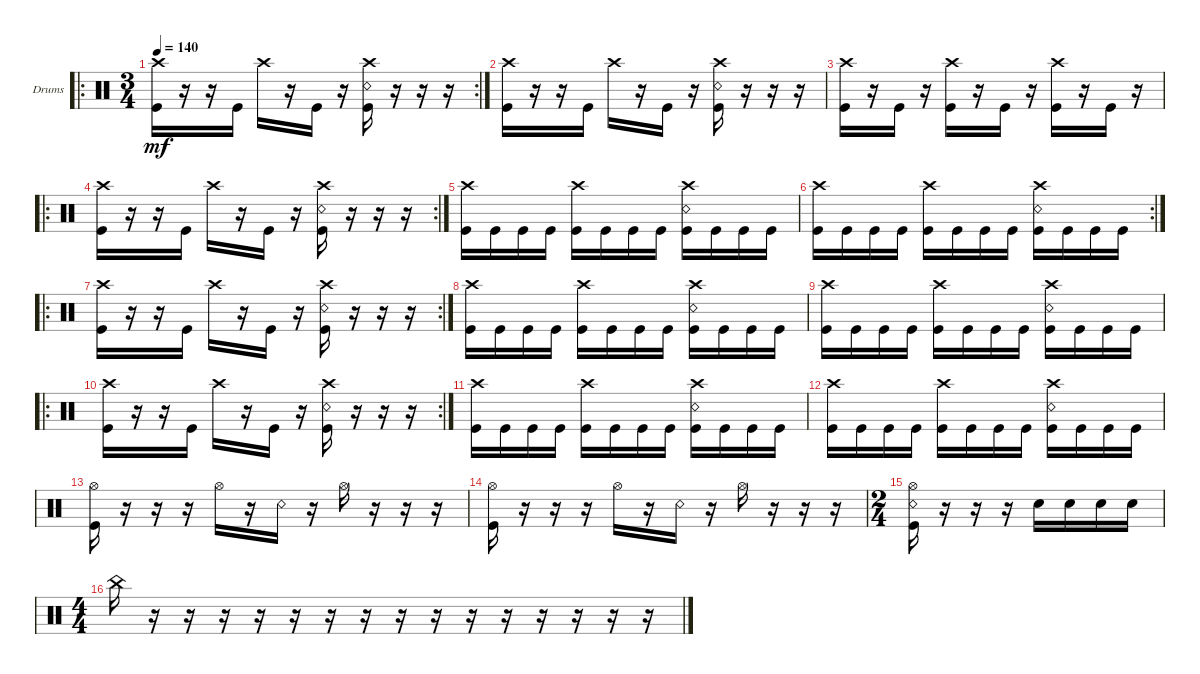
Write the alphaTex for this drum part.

\defaultSystemsLayout 4
\bracketExtendMode groupsimilarinstruments
\firstSystemTrackNameOrientation horizontal
\otherSystemsTrackNameOrientation horizontal
\track ("Drums" "Drums") {instrument percussion}
\staff {score}
\articulation defaults
\ro
\rc 2
\ts (3 4)
\tempo 140
\clef neutral
\ks c
("Crash high (hit)" "Kick (hit)").16{dy mf} r.16 r.16 "Kick (hit)".16 "Crash high (hit)".16 r.16 "Kick (hit)".16 r.16 ("Kick (hit)" "Crash high (hit)" "Snare (rim shot)").16 r.16 r.16 r.16 |
("Crash high (hit)" "Kick (hit)").16 r.16 r.16 "Kick (hit)".16 "Crash high (hit)".16 r.16 "Kick (hit)".16 r.16 ("Kick (hit)" "Crash high (hit)" "Snare (rim shot)").16 r.16 r.16 r.16 |
("Crash high (hit)" "Kick (hit)").16 r.16 "Kick (hit)".16 r.16 ("Crash high (hit)" "Kick (hit)").16 r.16 "Kick (hit)".16 r.16 ("Kick (hit)" "Crash high (hit)").16 r.16 "Kick (hit)".16 r.16 |
\ro
\rc 2
("Crash high (hit)" "Kick (hit)").16 r.16 r.16 "Kick (hit)".16 "Crash high (hit)".16 r.16 "Kick (hit)".16 r.16 ("Kick (hit)" "Crash high (hit)" "Snare (rim shot)").16 r.16 r.16 r.16 |
("Crash high (hit)" "Kick (hit)").16 "Kick (hit)".16 "Kick (hit)".16 "Kick (hit)".16 ("Crash high (hit)" "Kick (hit)").16 "Kick (hit)".16 "Kick (hit)".16 "Kick (hit)".16 ("Kick (hit)" "Crash high (hit)" "Snare (rim shot)").16 "Kick (hit)".16 "Kick (hit)".16 "Kick (hit)".16 |
\rc 2
("Crash high (hit)" "Kick (hit)").16 "Kick (hit)".16 "Kick (hit)".16 "Kick (hit)".16 ("Crash high (hit)" "Kick (hit)").16 "Kick (hit)".16 "Kick (hit)".16 "Kick (hit)".16 ("Kick (hit)" "Crash high (hit)" "Snare (rim shot)").16 "Kick (hit)".16 "Kick (hit)".16 "Kick (hit)".16 |
\ro
\rc 2
("Crash high (hit)" "Kick (hit)").16 r.16 r.16 "Kick (hit)".16 "Crash high (hit)".16 r.16 "Kick (hit)".16 r.16 ("Kick (hit)" "Crash high (hit)" "Snare (rim shot)").16 r.16 r.16 r.16 |
("Crash high (hit)" "Kick (hit)").16 "Kick (hit)".16 "Kick (hit)".16 "Kick (hit)".16 ("Crash high (hit)" "Kick (hit)").16 "Kick (hit)".16 "Kick (hit)".16 "Kick (hit)".16 ("Kick (hit)" "Crash high (hit)" "Snare (rim shot)").16 "Kick (hit)".16 "Kick (hit)".16 "Kick (hit)".16 |
("Crash high (hit)" "Kick (hit)").16 "Kick (hit)".16 "Kick (hit)".16 "Kick (hit)".16 ("Crash high (hit)" "Kick (hit)").16 "Kick (hit)".16 "Kick (hit)".16 "Kick (hit)".16 ("Kick (hit)" "Crash high (hit)" "Snare (rim shot)").16 "Kick (hit)".16 "Kick (hit)".16 "Kick (hit)".16 |
\ro
\rc 2
("Crash high (hit)" "Kick (hit)").16 r.16 r.16 "Kick (hit)".16 "Crash high (hit)".16 r.16 "Kick (hit)".16 r.16 ("Kick (hit)" "Crash high (hit)" "Snare (rim shot)").16 r.16 r.16 r.16 |
("Crash high (hit)" "Kick (hit)").16 "Kick (hit)".16 "Kick (hit)".16 "Kick (hit)".16 ("Crash high (hit)" "Kick (hit)").16 "Kick (hit)".16 "Kick (hit)".16 "Kick (hit)".16 ("Kick (hit)" "Crash high (hit)" "Snare (rim shot)").16 "Kick (hit)".16 "Kick (hit)".16 "Kick (hit)".16 |
("Crash high (hit)" "Kick (hit)").16 "Kick (hit)".16 "Kick (hit)".16 "Kick (hit)".16 ("Crash high (hit)" "Kick (hit)").16 "Kick (hit)".16 "Kick (hit)".16 "Kick (hit)".16 ("Kick (hit)" "Crash high (hit)" "Snare (rim shot)").16 "Kick (hit)".16 "Kick (hit)".16 "Kick (hit)".16 |
("Hi-Hat (open)" "Kick (hit)").16 r.16 r.16 r.16 "Hi-Hat (open)".16 r.16 "Snare (rim shot)".16 r.16 "Hi-Hat (open)".16 r.16 r.16 r.16 |
("Hi-Hat (open)" "Kick (hit)").16 r.16 r.16 r.16 "Hi-Hat (open)".16 r.16 "Snare (rim shot)".16 r.16 "Hi-Hat (open)".16 r.16 r.16 r.16 |
\ts (2 4)
("Kick (hit)" "Hi-Hat (open)" "Snare (rim shot)").16 r.16 r.16 r.16 "Snare (hit) 2".16 "Snare (hit) 2".16 "Snare (hit) 2".16 "Snare (hit) 2".16 |
\ts (4 4)
"China (hit)".16 r.16 r.16 r.16 r.16 r.16 r.16 r.16 r.16 r.16 r.16 r.16 r.16 r.16 r.16 r.16
